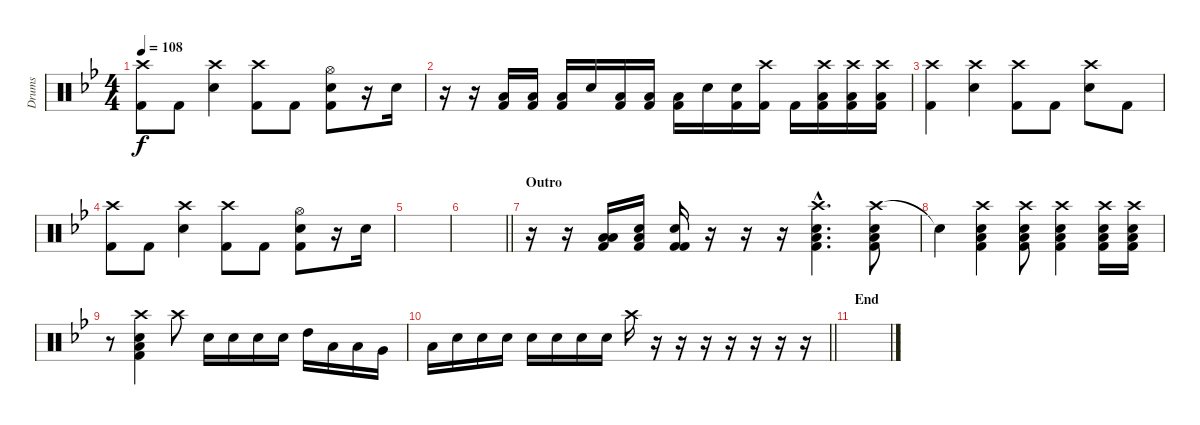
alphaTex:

\track ("Drums" "Drums") {instrument percussion}
\staff {score}
\articulation defaults
\ts (4 4)
\tempo 108
\clef neutral
\ks bb
("Crash high (hit)" "Kick (hit) 2").8{dy f} "Kick (hit) 2".8 ("Crash high (hit)" "Electric Snare (hit)").4 ("Crash high (hit)" "Kick (hit) 2").8 "Kick (hit) 2".8 ("Hi-Hat (open)" "Electric Snare (hit)" "Kick (hit) 2").8 r.16 "Electric Snare (hit)".16 |
r.16 r.16 ("Low Tom (hit)" "Kick (hit) 2").16 ("Low Tom (hit)" "Kick (hit) 2").16 ("Low Floor Tom (hit)" "Kick (hit) 2").16 "Electric Snare (hit)".16 ("Low Tom (hit)" "Kick (hit) 2").16 ("Low Tom (hit)" "Kick (hit) 2").16 ("Low Floor Tom (hit)" "Kick (hit) 2").16 "Electric Snare (hit)".16 ("Electric Snare (hit)" "Kick (hit) 2").16 ("Crash high (hit)" "Kick (hit) 2").16 "Kick (hit) 2".16 ("Crash high (hit)" "Low Floor Tom (hit)" "Kick (hit) 2").16 ("Crash high (hit)" "Low Floor Tom (hit)" "Kick (hit) 2").16 ("Crash high (hit)" "Low Floor Tom (hit)" "Kick (hit) 2").16 |
("Crash high (hit)" "Kick (hit) 2").4 ("Crash high (hit)" "Electric Snare (hit)").4 ("Crash high (hit)" "Kick (hit) 2").8 "Kick (hit) 2".8 ("Crash high (hit)" "Electric Snare (hit)").8 "Kick (hit) 2".8 |
("Crash high (hit)" "Kick (hit) 2").8 "Kick (hit) 2".8 ("Crash high (hit)" "Electric Snare (hit)").4 ("Crash high (hit)" "Kick (hit) 2").8 "Kick (hit) 2".8 ("Hi-Hat (open)" "Electric Snare (hit)" "Kick (hit) 2").8 r.16 "Electric Snare (hit)".16 |
|
\barLineRight lightlight
|
\section ("" "Outro")
r.16 r.16 ("Low Tom (hit)" "Low Floor Tom (hit)" "Kick (hit) 2").16 ("Low Floor Tom (hit)" "Electric Snare (hit)" "Kick (hit) 2").16 ("Electric Snare (hit)" "Kick (hit) 2" "Kick (hit) 2").16 r.16 r.16 r.16 ("Crash high (hit)"{hac} "Electric Snare (hit)"{hac} "Low Floor Tom (hit)"{hac} "Kick (hit) 2"{hac}).4{d} ("Crash high (hit)" "Electric Snare (hit)" "Low Floor Tom (hit)" "Kick (hit) 2").8 |
"Snare (hit)"{t}.4 ("Crash high (hit)" "Electric Snare (hit)" "Low Floor Tom (hit)" "Kick (hit) 2").4 ("Crash high (hit)" "Electric Snare (hit)" "Low Floor Tom (hit)" "Kick (hit) 2").8 ("Crash high (hit)" "Electric Snare (hit)" "Low Floor Tom (hit)" "Kick (hit) 2").4 ("Crash high (hit)" "Electric Snare (hit)" "Low Floor Tom (hit)" "Kick (hit) 2").16 ("Crash high (hit)" "Electric Snare (hit)" "Low Floor Tom (hit)" "Kick (hit) 2").16 |
r.8 ("Crash high (hit)" "Electric Snare (hit)" "Low Floor Tom (hit)" "Kick (hit) 2").4 "Crash high (hit)".8 "Electric Snare (hit)".16 "Electric Snare (hit)".16 "Electric Snare (hit)".16 "Electric Snare (hit)".16 "High Tom (hit)".16 "Low Tom (hit)".16 "Low Tom (hit)".16 "Very Low Tom (hit)".16 |
\barLineRight lightlight "Low Floor Tom (hit)".16 "Electric Snare (hit)".16 "Electric Snare (hit)".16 "Electric Snare (hit)".16 "Electric Snare (hit)".16 "Electric Snare (hit)".16 "Electric Snare (hit)".16 "Electric Snare (hit)".16 "Crash high (hit)".16
r.16 r.16 r.16 r.16 r.16 r.16 r.16 |
\section ("" "End")
